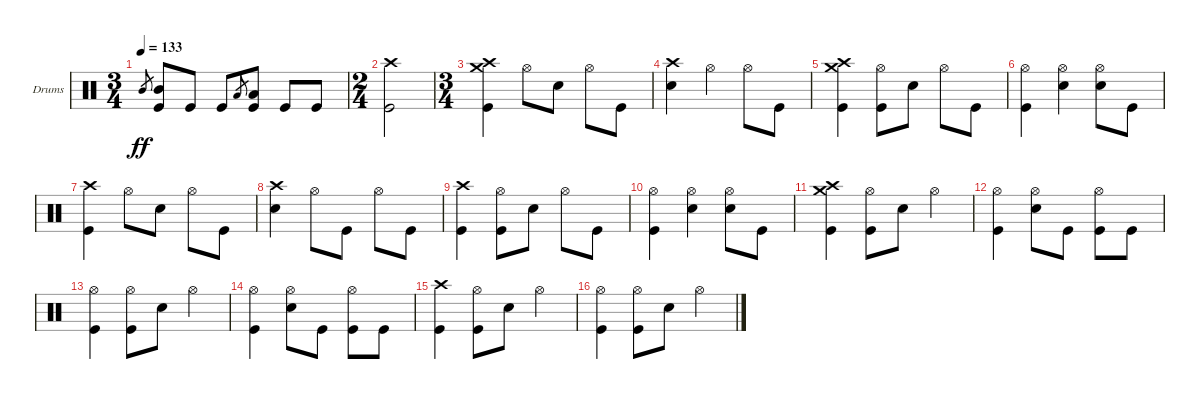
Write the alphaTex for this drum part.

\bracketExtendMode groupsimilarinstruments
\firstSystemTrackNameOrientation horizontal
\otherSystemsTrackNameOrientation horizontal
\track ("Drumkit" "Drums") {instrument percussion}
\staff {score}
\articulation defaults
\ts (3 4)
\tempo 133
\clef neutral
\ks c "Mid Tom (hit)".8{gr dy ff}
("Kick (hit)" "Mid Tom (hit)").8 "Kick (hit)".8 "Kick (hit)".8 "Low Tom (hit)".8{gr} ("Kick (hit)" "Low Tom (hit)").8 "Kick (hit)".8 "Kick (hit)".8 |
\ts (2 4)
("Kick (hit)" "Crash high (hit)").2 |
\ts (3 4)
("Kick (hit)" "Crash high (hit)" "Crash medium (hit)").4 "Hi-Hat (open)".8 "Snare (hit) 2".8 "Hi-Hat (open)".8 "Kick (hit)".8 |
("Crash high (hit)" "Snare (hit) 2").4 "Hi-Hat (open)".4 "Hi-Hat (open)".8 "Kick (hit)".8 |
("Kick (hit)" "Crash medium (hit)" "Crash high (hit)").4 ("Hi-Hat (open)" "Kick (hit)").8 "Snare (hit) 2".8 "Hi-Hat (open)".8 "Kick (hit)".8 |
("Kick (hit)" "Hi-Hat (open)").4 ("Hi-Hat (open)" "Snare (hit) 2").4 ("Snare (hit) 2" "Hi-Hat (open)").8 "Kick (hit)".8 |
("Crash high (hit)" "Kick (hit)").4 "Hi-Hat (open)".8 "Snare (hit) 2".8 "Hi-Hat (open)".8 "Kick (hit)".8 |
("Snare (hit) 2" "Crash high (hit)").4 "Hi-Hat (open)".8 "Kick (hit)".8 "Hi-Hat (open)".8 "Kick (hit)".8 |
("Kick (hit)" "Crash high (hit)").4 ("Hi-Hat (open)" "Kick (hit)").8 "Snare (hit) 2".8 "Hi-Hat (open)".8 "Kick (hit)".8 |
("Kick (hit)" "Hi-Hat (open)").4 ("Hi-Hat (open)" "Snare (hit) 2").4 ("Hi-Hat (open)" "Snare (hit) 2").8 "Kick (hit)".8 |
("Kick (hit)" "Crash high (hit)" "Crash medium (hit)").4 ("Hi-Hat (open)" "Kick (hit)").8 "Snare (hit) 2".8 "Hi-Hat (open)".4 |
("Hi-Hat (open)" "Kick (hit)").4 ("Hi-Hat (open)" "Snare (hit) 2").8 "Kick (hit)".8 ("Hi-Hat (open)" "Kick (hit)").8 "Kick (hit)".8 |
("Kick (hit)" "Hi-Hat (open)").4 ("Hi-Hat (open)" "Kick (hit)").8 "Snare (hit) 2".8 "Hi-Hat (open)".4 |
("Hi-Hat (open)" "Kick (hit)").4 ("Hi-Hat (open)" "Snare (hit) 2").8 "Kick (hit)".8 ("Hi-Hat (open)" "Kick (hit)").8 "Kick (hit)".8 |
("Kick (hit)" "Crash high (hit)").4 ("Hi-Hat (open)" "Kick (hit)").8 "Snare (hit) 2".8 "Hi-Hat (open)".4 |
("Kick (hit)" "Hi-Hat (open)").4 ("Hi-Hat (open)" "Kick (hit)").8 "Snare (hit) 2".8 "Hi-Hat (open)".4
